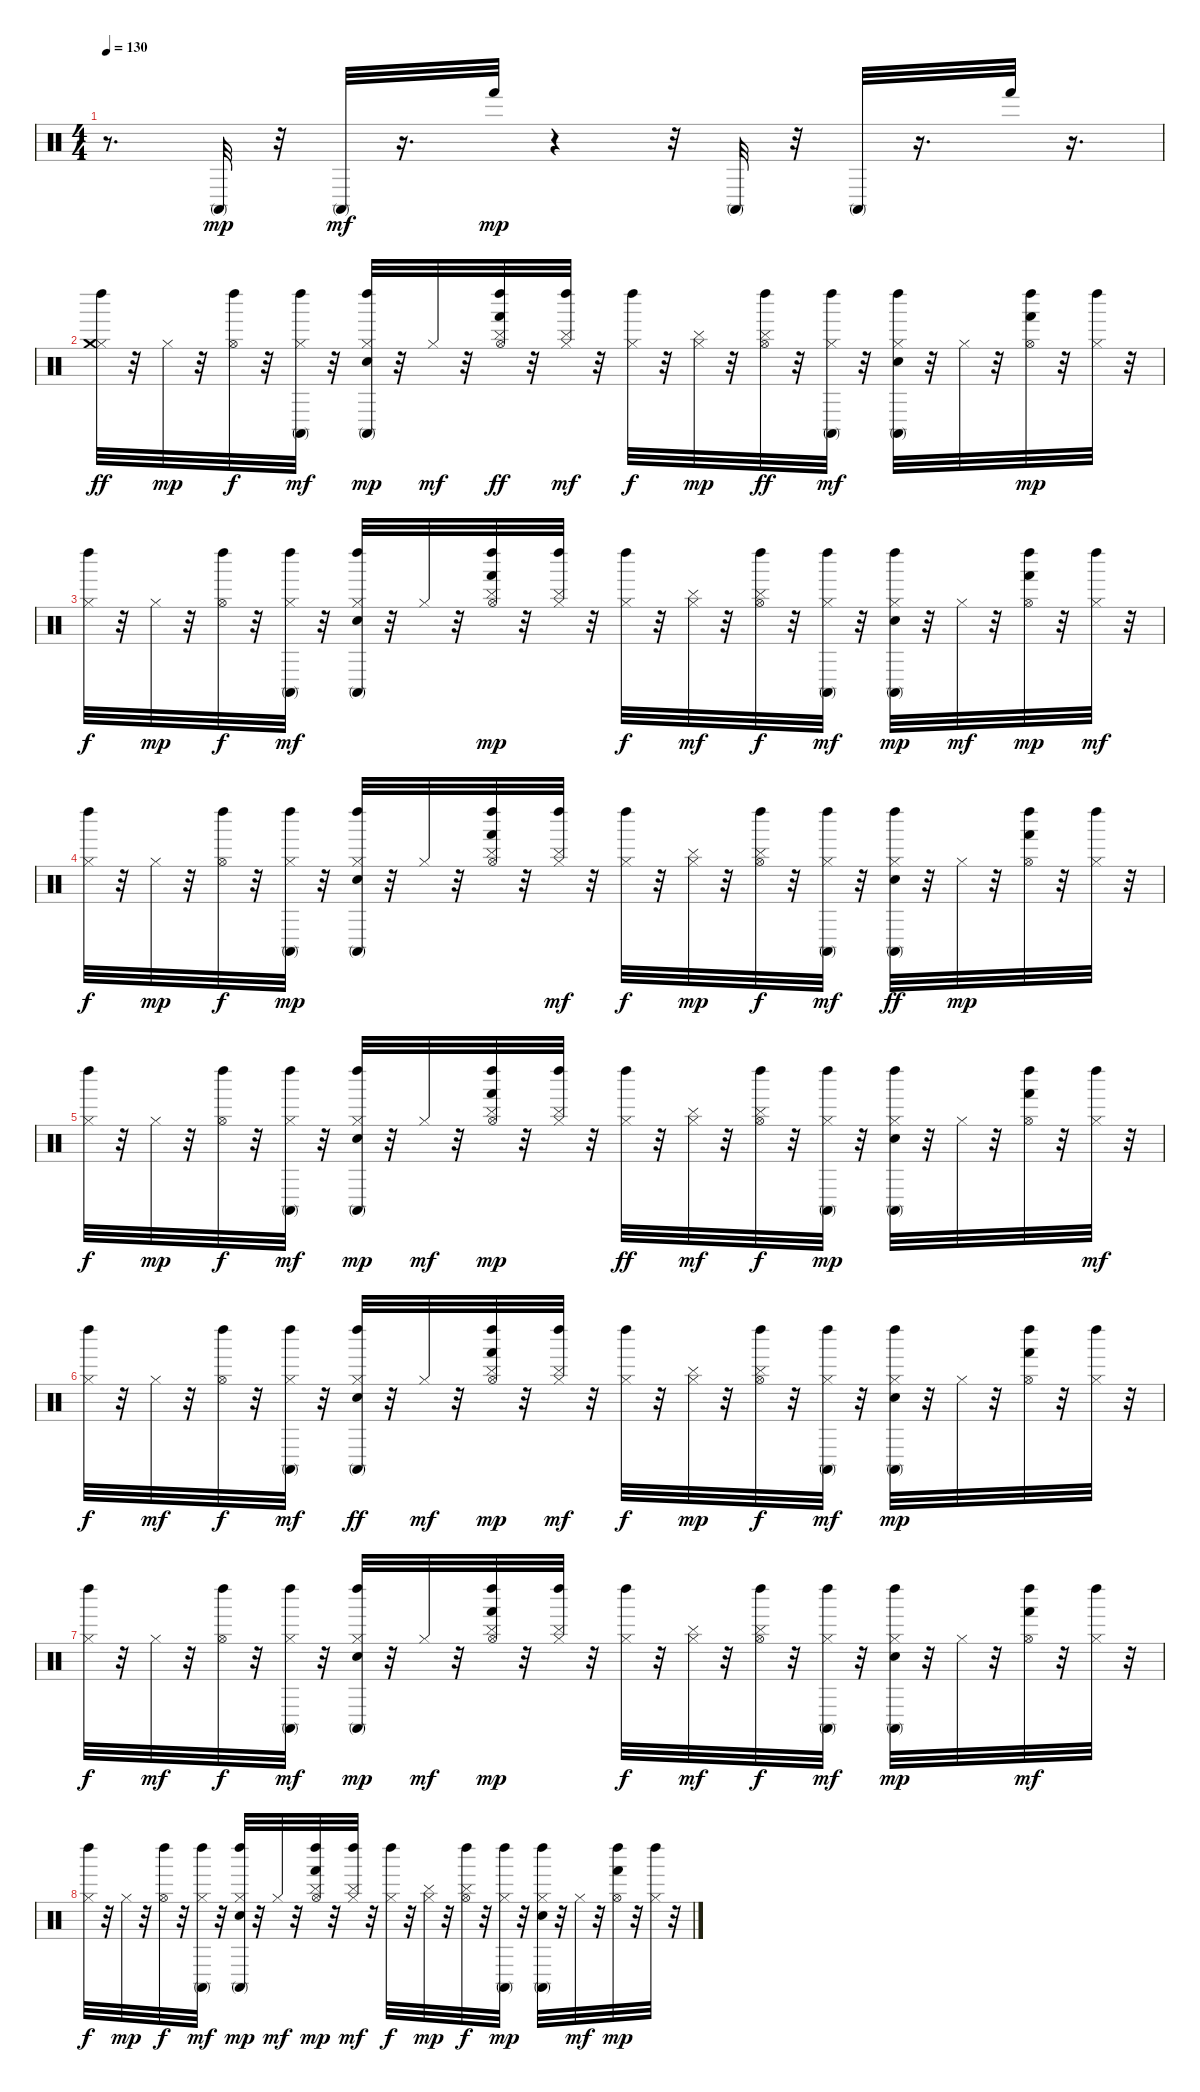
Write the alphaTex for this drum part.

\track "" {instrument percussion}
\staff {score}
\articulation defaults
\ts (4 4)
\tempo 130
\clef neutral
\ks c
r.8{d dy mp} "Conga high (mute)".32 r.32 "Conga high (mute)".32{dy mf} r.16{d} "Hand (hit)".32{dy mp} r.4 r.32 "Conga high (mute)".32 r.32 "Conga high (mute)".32 r.16{d} "Hand (hit)".32 r.16{d} |
("Hi-Hat (closed)" "Crash medium (hit)" "Left Maraca (hit)").32{dy ff} r.32 "Hi-Hat (closed)".32{dy mp} r.32 ("Left Maraca (hit)" "Hi-Hat (open)").32{dy f} r.32 ("Conga high (mute)" "Hi-Hat (closed)" "Left Maraca (hit)").32{dy mf} r.32 ("Hi-Hat (closed)" "Conga high (mute)" "Left Maraca (hit)" "Hand Clap (hit)").32{dy mp} r.32 "Hi-Hat (closed)".32{dy mf} r.32 ("Cymbal (hit)" "Hand (hit)" "Hi-Hat (open)" "Left Maraca (hit)").32{dy ff} r.32 ("Cymbal (hit)" "Hi-Hat (closed)" "Left Maraca (hit)").32{dy mf} r.32 ("Hi-Hat (closed)" "Left Maraca (hit)").32{dy f} r.32 ("Cymbal (hit)" "Hi-Hat (closed)").32{dy mp} r.32 ("Cymbal (hit)" "Left Maraca (hit)" "Hi-Hat (open)").32{dy ff} r.32 ("Hi-Hat (closed)" "Conga high (mute)" "Left Maraca (hit)").32{dy mf} r.32 ("Hi-Hat (closed)" "Hand Clap (hit)" "Conga high (mute)" "Left Maraca (hit)").32 r.32 "Hi-Hat (closed)".32 r.32 ("Hi-Hat (open)" "Hand (hit)" "Left Maraca (hit)").32{dy mp} r.32 ("Left Maraca (hit)" "Hi-Hat (closed)").32 r.32 |
("Left Maraca (hit)" "Hi-Hat (closed)").32{dy f} r.32 "Hi-Hat (closed)".32{dy mp} r.32 ("Hi-Hat (open)" "Left Maraca (hit)").32{dy f} r.32 ("Conga high (mute)" "Hi-Hat (closed)" "Left Maraca (hit)").32{dy mf} r.32 ("Conga high (mute)" "Hand Clap (hit)" "Left Maraca (hit)" "Hi-Hat (closed)").32 r.32 "Hi-Hat (closed)".32 r.32 ("Hi-Hat (open)" "Cymbal (hit)" "Left Maraca (hit)" "Hand (hit)").32{dy mp} r.32 ("Left Maraca (hit)" "Cymbal (hit)" "Hi-Hat (closed)").32 r.32 ("Hi-Hat (closed)" "Left Maraca (hit)").32{dy f} r.32 ("Hi-Hat (closed)" "Cymbal (hit)").32{dy mf} r.32 ("Hi-Hat (open)" "Left Maraca (hit)" "Cymbal (hit)").32{dy f} r.32 ("Hi-Hat (closed)" "Conga high (mute)" "Left Maraca (hit)").32{dy mf} r.32 ("Conga high (mute)" "Hi-Hat (closed)" "Left Maraca (hit)" "Hand Clap (hit)").32{dy mp} r.32 "Hi-Hat (closed)".32{dy mf} r.32 ("Hand (hit)" "Hi-Hat (open)" "Left Maraca (hit)").32{dy mp} r.32 ("Hi-Hat (closed)" "Left Maraca (hit)").32{dy mf} r.32 |
("Hi-Hat (closed)" "Left Maraca (hit)").32{dy f} r.32 "Hi-Hat (closed)".32{dy mp} r.32 ("Left Maraca (hit)" "Hi-Hat (open)").32{dy f} r.32 ("Conga high (mute)" "Hi-Hat (closed)" "Left Maraca (hit)").32{dy mp} r.32 ("Hi-Hat (closed)" "Conga high (mute)" "Hand Clap (hit)" "Left Maraca (hit)").32 r.32 "Hi-Hat (closed)".32 r.32 ("Cymbal (hit)" "Hand (hit)" "Hi-Hat (open)" "Left Maraca (hit)").32 r.32 ("Cymbal (hit)" "Hi-Hat (closed)" "Left Maraca (hit)").32{dy mf} r.32 ("Hi-Hat (closed)" "Left Maraca (hit)").32{dy f} r.32 ("Cymbal (hit)" "Hi-Hat (closed)").32{dy mp} r.32 ("Cymbal (hit)" "Left Maraca (hit)" "Hi-Hat (open)").32{dy f} r.32 ("Conga high (mute)" "Hi-Hat (closed)" "Left Maraca (hit)").32{dy mf} r.32 ("Hi-Hat (closed)" "Conga high (mute)" "Left Maraca (hit)" "Hand Clap (hit)").32{dy ff} r.32 "Hi-Hat (closed)".32{dy mp} r.32 ("Left Maraca (hit)" "Hi-Hat (open)" "Hand (hit)").32 r.32 ("Left Maraca (hit)" "Hi-Hat (closed)").32 r.32 |
("Left Maraca (hit)" "Hi-Hat (closed)").32{dy f} r.32 "Hi-Hat (closed)".32{dy mp} r.32 ("Left Maraca (hit)" "Hi-Hat (open)").32{dy f} r.32 ("Conga high (mute)" "Hi-Hat (closed)" "Left Maraca (hit)").32{dy mf} r.32 ("Left Maraca (hit)" "Hand Clap (hit)" "Hi-Hat (closed)" "Conga high (mute)").32{dy mp} r.32 "Hi-Hat (closed)".32{dy mf} r.32 ("Left Maraca (hit)" "Hi-Hat (open)" "Cymbal (hit)" "Hand (hit)").32{dy mp} r.32 ("Left Maraca (hit)" "Cymbal (hit)" "Hi-Hat (closed)").32 r.32 ("Left Maraca (hit)" "Hi-Hat (closed)").32{dy ff} r.32 ("Hi-Hat (closed)" "Cymbal (hit)").32{dy mf} r.32 ("Hi-Hat (open)" "Cymbal (hit)" "Left Maraca (hit)").32{dy f} r.32 ("Hi-Hat (closed)" "Left Maraca (hit)" "Conga high (mute)").32{dy mp} r.32 ("Hi-Hat (closed)" "Hand Clap (hit)" "Left Maraca (hit)" "Conga high (mute)").32 r.32 "Hi-Hat (closed)".32 r.32 ("Hand (hit)" "Left Maraca (hit)" "Hi-Hat (open)").32 r.32 ("Hi-Hat (closed)" "Left Maraca (hit)").32{dy mf} r.32 |
("Hi-Hat (closed)" "Left Maraca (hit)").32{dy f} r.32 "Hi-Hat (closed)".32{dy mf} r.32 ("Left Maraca (hit)" "Hi-Hat (open)").32{dy f} r.32 ("Conga high (mute)" "Hi-Hat (closed)" "Left Maraca (hit)").32{dy mf} r.32 ("Conga high (mute)" "Hi-Hat (closed)" "Left Maraca (hit)" "Hand Clap (hit)").32{dy ff} r.32 "Hi-Hat (closed)".32{dy mf} r.32 ("Cymbal (hit)" "Hi-Hat (open)" "Hand (hit)" "Left Maraca (hit)").32{dy mp} r.32 ("Hi-Hat (closed)" "Cymbal (hit)" "Left Maraca (hit)").32{dy mf} r.32 ("Hi-Hat (closed)" "Left Maraca (hit)").32{dy f} r.32 ("Cymbal (hit)" "Hi-Hat (closed)").32{dy mp} r.32 ("Cymbal (hit)" "Hi-Hat (open)" "Left Maraca (hit)").32{dy f} r.32 ("Hi-Hat (closed)" "Conga high (mute)" "Left Maraca (hit)").32{dy mf} r.32 ("Conga high (mute)" "Hi-Hat (closed)" "Left Maraca (hit)" "Hand Clap (hit)").32{dy mp} r.32 "Hi-Hat (closed)".32 r.32 ("Hi-Hat (open)" "Left Maraca (hit)" "Hand (hit)").32 r.32 ("Left Maraca (hit)" "Hi-Hat (closed)").32 r.32 |
("Left Maraca (hit)" "Hi-Hat (closed)").32{dy f} r.32 "Hi-Hat (closed)".32{dy mf} r.32 ("Left Maraca (hit)" "Hi-Hat (open)").32{dy f} r.32 ("Conga high (mute)" "Hi-Hat (closed)" "Left Maraca (hit)").32{dy mf} r.32 ("Left Maraca (hit)" "Hand Clap (hit)" "Hi-Hat (closed)" "Conga high (mute)").32{dy mp} r.32 "Hi-Hat (closed)".32{dy mf} r.32 ("Left Maraca (hit)" "Hi-Hat (open)" "Hand (hit)" "Cymbal (hit)").32{dy mp} r.32 ("Left Maraca (hit)" "Cymbal (hit)" "Hi-Hat (closed)").32 r.32 ("Left Maraca (hit)" "Hi-Hat (closed)").32{dy f} r.32 ("Cymbal (hit)" "Hi-Hat (closed)").32{dy mf} r.32 ("Hi-Hat (open)" "Cymbal (hit)" "Left Maraca (hit)").32{dy f} r.32 ("Conga high (mute)" "Hi-Hat (closed)" "Left Maraca (hit)").32{dy mf} r.32 ("Hi-Hat (closed)" "Conga high (mute)" "Left Maraca (hit)" "Hand Clap (hit)").32{dy mp} r.32 "Hi-Hat (closed)".32 r.32 ("Hand (hit)" "Hi-Hat (open)" "Left Maraca (hit)").32{dy mf} r.32 ("Hi-Hat (closed)" "Left Maraca (hit)").32 r.32 |
("Hi-Hat (closed)" "Left Maraca (hit)").32{dy f} r.32 "Hi-Hat (closed)".32{dy mp} r.32 ("Left Maraca (hit)" "Hi-Hat (open)").32{dy f} r.32 ("Conga high (mute)" "Hi-Hat (closed)" "Left Maraca (hit)").32{dy mf} r.32 ("Hi-Hat (closed)" "Conga high (mute)" "Left Maraca (hit)" "Hand Clap (hit)").32{dy mp} r.32 "Hi-Hat (closed)".32{dy mf} r.32 ("Cymbal (hit)" "Hi-Hat (open)" "Left Maraca (hit)" "Hand (hit)").32{dy mp} r.32 ("Hi-Hat (closed)" "Cymbal (hit)" "Left Maraca (hit)").32{dy mf} r.32 ("Hi-Hat (closed)" "Left Maraca (hit)").32{dy f} r.32 ("Hi-Hat (closed)" "Cymbal (hit)").32{dy mp} r.32 ("Cymbal (hit)" "Left Maraca (hit)" "Hi-Hat (open)").32{dy f} r.32 ("Hi-Hat (closed)" "Conga high (mute)" "Left Maraca (hit)").32{dy mp} r.32 ("Hi-Hat (closed)" "Hand Clap (hit)" "Left Maraca (hit)" "Conga high (mute)").32 r.32 "Hi-Hat (closed)".32{dy mf} r.32 ("Hi-Hat (open)" "Hand (hit)" "Left Maraca (hit)").32{dy mp} r.32 ("Left Maraca (hit)" "Hi-Hat (closed)").32 r.32
